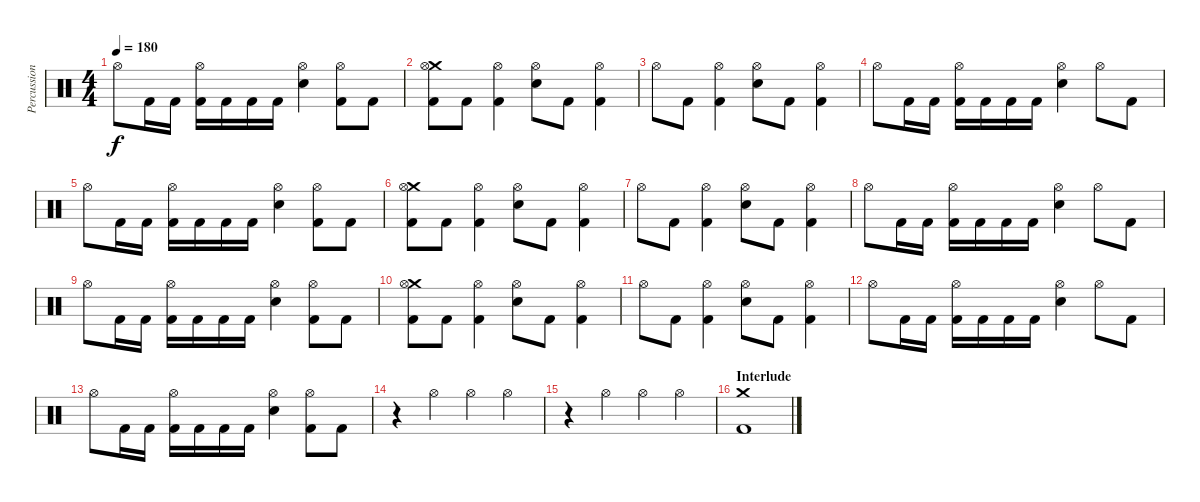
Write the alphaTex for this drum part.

\track ("Percussion" "Percussion") {instrument percussion}
\staff {score}
\articulation defaults
\ts (4 4)
\tempo 180
\clef neutral
\ks c "Hi-Hat (open)".8{dy f} "Kick (hit) 2".16 "Kick (hit) 2".16
("Hi-Hat (open)" "Kick (hit) 2").16 "Kick (hit) 2".16 "Kick (hit) 2".16 "Kick (hit) 2".16 ("Hi-Hat (open)" "Electric Snare (hit)").4 ("Hi-Hat (open)" "Kick (hit) 2").8 "Kick (hit) 2".8 |
("Crash medium (hit)" "Hi-Hat (open)" "Kick (hit) 2").8 "Kick (hit) 2".8 ("Hi-Hat (open)" "Kick (hit) 2").4 ("Hi-Hat (open)" "Electric Snare (hit)").8 "Kick (hit) 2".8 ("Hi-Hat (open)" "Kick (hit) 2").4 |
"Hi-Hat (open)".8 "Kick (hit) 2".8 ("Hi-Hat (open)" "Kick (hit) 2").4 ("Hi-Hat (open)" "Electric Snare (hit)").8 "Kick (hit) 2".8 ("Hi-Hat (open)" "Kick (hit) 2").4 |
"Hi-Hat (open)".8 "Kick (hit) 2".16 "Kick (hit) 2".16 ("Hi-Hat (open)" "Kick (hit) 2").16 "Kick (hit) 2".16 "Kick (hit) 2".16 "Kick (hit) 2".16 ("Hi-Hat (open)" "Electric Snare (hit)").4 "Hi-Hat (open)".8 "Kick (hit) 2".8 |
"Hi-Hat (open)".8 "Kick (hit) 2".16 "Kick (hit) 2".16 ("Hi-Hat (open)" "Kick (hit) 2").16 "Kick (hit) 2".16 "Kick (hit) 2".16 "Kick (hit) 2".16 ("Hi-Hat (open)" "Electric Snare (hit)").4 ("Hi-Hat (open)" "Kick (hit) 2").8 "Kick (hit) 2".8 |
("Crash medium (hit)" "Hi-Hat (open)" "Kick (hit) 2").8 "Kick (hit) 2".8 ("Hi-Hat (open)" "Kick (hit) 2").4 ("Hi-Hat (open)" "Electric Snare (hit)").8 "Kick (hit) 2".8 ("Hi-Hat (open)" "Kick (hit) 2").4 |
"Hi-Hat (open)".8 "Kick (hit) 2".8 ("Hi-Hat (open)" "Kick (hit) 2").4 ("Hi-Hat (open)" "Electric Snare (hit)").8 "Kick (hit) 2".8 ("Hi-Hat (open)" "Kick (hit) 2").4 |
"Hi-Hat (open)".8 "Kick (hit) 2".16 "Kick (hit) 2".16 ("Hi-Hat (open)" "Kick (hit) 2").16 "Kick (hit) 2".16 "Kick (hit) 2".16 "Kick (hit) 2".16 ("Hi-Hat (open)" "Electric Snare (hit)").4 "Hi-Hat (open)".8 "Kick (hit) 2".8 |
"Hi-Hat (open)".8 "Kick (hit) 2".16 "Kick (hit) 2".16 ("Hi-Hat (open)" "Kick (hit) 2").16 "Kick (hit) 2".16 "Kick (hit) 2".16 "Kick (hit) 2".16 ("Hi-Hat (open)" "Electric Snare (hit)").4 ("Hi-Hat (open)" "Kick (hit) 2").8 "Kick (hit) 2".8 |
("Crash medium (hit)" "Hi-Hat (open)" "Kick (hit) 2").8 "Kick (hit) 2".8 ("Hi-Hat (open)" "Kick (hit) 2").4 ("Hi-Hat (open)" "Electric Snare (hit)").8 "Kick (hit) 2".8 ("Hi-Hat (open)" "Kick (hit) 2").4 |
"Hi-Hat (open)".8 "Kick (hit) 2".8 ("Hi-Hat (open)" "Kick (hit) 2").4 ("Hi-Hat (open)" "Electric Snare (hit)").8 "Kick (hit) 2".8 ("Hi-Hat (open)" "Kick (hit) 2").4 |
"Hi-Hat (open)".8 "Kick (hit) 2".16 "Kick (hit) 2".16 ("Hi-Hat (open)" "Kick (hit) 2").16 "Kick (hit) 2".16 "Kick (hit) 2".16 "Kick (hit) 2".16 ("Hi-Hat (open)" "Electric Snare (hit)").4 "Hi-Hat (open)".8 "Kick (hit) 2".8 |
"Hi-Hat (open)".8 "Kick (hit) 2".16 "Kick (hit) 2".16 ("Hi-Hat (open)" "Kick (hit) 2").16 "Kick (hit) 2".16 "Kick (hit) 2".16 "Kick (hit) 2".16 ("Hi-Hat (open)" "Electric Snare (hit)").4 ("Hi-Hat (open)" "Kick (hit) 2").8 "Kick (hit) 2".8 |
r.4 "Hi-Hat (open)".4 "Hi-Hat (open)".4 "Hi-Hat (open)".4 |
r.4 "Hi-Hat (open)".4 "Hi-Hat (open)".4 "Hi-Hat (open)".4 |
\section ("" "Interlude")
("Crash medium (hit)" "Kick (hit) 2").1
